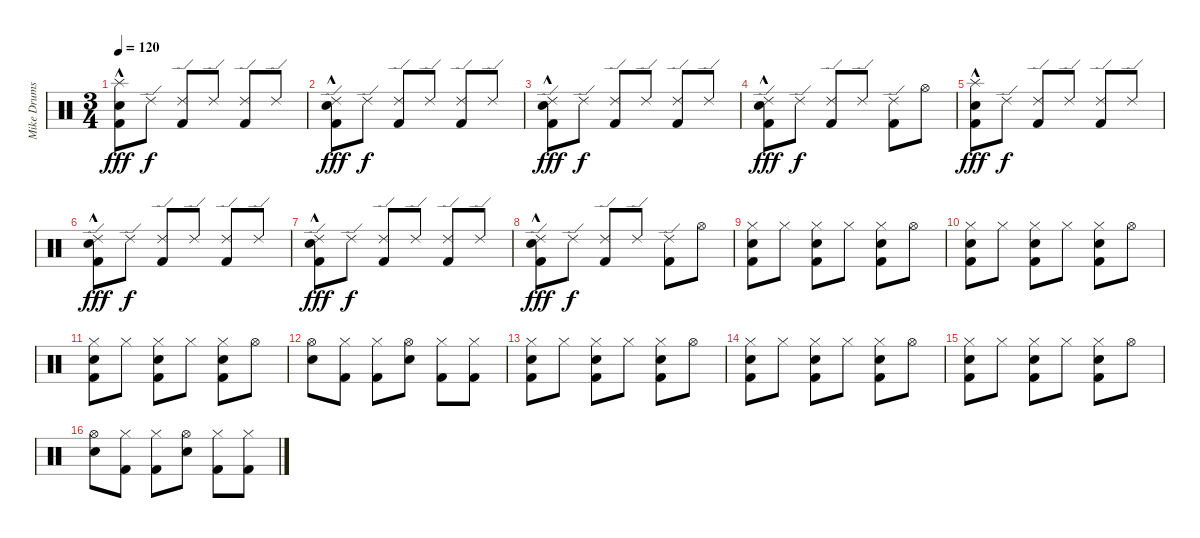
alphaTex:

\track ("Mike Drums" "Mike Drums") {instrument percussion}
\staff {score}
\articulation defaults
\ts (3 4)
\tempo 120
\clef neutral
\ks c
("Splash (hit)"{hac} "Snare (hit) 2"{hac} "Kick (hit) 2").8{dy fff} "Ride (edge) 2".8{dy f} ("Ride (edge) 2" "Kick (hit) 2").8 "Ride (edge) 2".8 ("Ride (edge) 2" "Kick (hit) 2").8 "Ride (edge) 2".8 |
("Ride (edge) 2" "Snare (hit) 2"{hac} "Kick (hit) 2").8{dy fff} "Ride (edge) 2".8{dy f} ("Ride (edge) 2" "Kick (hit) 2").8 "Ride (edge) 2".8 ("Ride (edge) 2" "Kick (hit) 2").8 "Ride (edge) 2".8 |
("Ride (edge) 2" "Snare (hit) 2"{hac} "Kick (hit) 2").8{dy fff} "Ride (edge) 2".8{dy f} ("Ride (edge) 2" "Kick (hit) 2").8 "Ride (edge) 2".8 ("Ride (edge) 2" "Kick (hit) 2").8 "Ride (edge) 2".8 |
("Ride (edge) 2" "Snare (hit) 2"{hac} "Kick (hit) 2").8{dy fff} "Ride (edge) 2".8{dy f} ("Ride (edge) 2" "Kick (hit) 2").8 "Ride (edge) 2".8 ("Ride (edge) 2" "Kick (hit) 2").8 "Hi-Hat (open)".8 |
("Splash (hit)"{hac} "Snare (hit) 2"{hac} "Kick (hit) 2").8{dy fff} "Ride (edge) 2".8{dy f} ("Ride (edge) 2" "Kick (hit) 2").8 "Ride (edge) 2".8 ("Ride (edge) 2" "Kick (hit) 2").8 "Ride (edge) 2".8 |
("Ride (edge) 2" "Snare (hit) 2"{hac} "Kick (hit) 2").8{dy fff} "Ride (edge) 2".8{dy f} ("Ride (edge) 2" "Kick (hit) 2").8 "Ride (edge) 2".8 ("Ride (edge) 2" "Kick (hit) 2").8 "Ride (edge) 2".8 |
("Ride (edge) 2" "Snare (hit) 2"{hac} "Kick (hit) 2").8{dy fff} "Ride (edge) 2".8{dy f} ("Ride (edge) 2" "Kick (hit) 2").8 "Ride (edge) 2".8 ("Ride (edge) 2" "Kick (hit) 2").8 "Ride (edge) 2".8 |
("Ride (edge) 2" "Snare (hit) 2"{hac} "Kick (hit) 2").8{dy fff} "Ride (edge) 2".8{dy f} ("Ride (edge) 2" "Kick (hit) 2").8 "Ride (edge) 2".8 ("Ride (edge) 2" "Kick (hit) 2").8 "Hi-Hat (open)".8 |
("Hi-Hat (closed)" "Snare (hit) 2" "Kick (hit) 2").8 "Hi-Hat (closed)".8 ("Hi-Hat (closed)" "Snare (hit) 2" "Kick (hit) 2").8 "Hi-Hat (closed)".8 ("Hi-Hat (closed)" "Snare (hit) 2" "Kick (hit) 2").8 "Hi-Hat (open)".8 |
("Hi-Hat (closed)" "Snare (hit) 2" "Kick (hit) 2").8 "Hi-Hat (closed)".8 ("Hi-Hat (closed)" "Snare (hit) 2" "Kick (hit) 2").8 "Hi-Hat (closed)".8 ("Hi-Hat (closed)" "Snare (hit) 2" "Kick (hit) 2").8 "Hi-Hat (open)".8 |
("Hi-Hat (closed)" "Snare (hit) 2" "Kick (hit) 2").8 "Hi-Hat (closed)".8 ("Hi-Hat (closed)" "Snare (hit) 2" "Kick (hit) 2").8 "Hi-Hat (closed)".8 ("Hi-Hat (closed)" "Snare (hit) 2" "Kick (hit) 2").8 "Hi-Hat (open)".8 |
("Hi-Hat (open)" "Electric Snare (hit)").8 ("Hi-Hat (closed)" "Kick (hit) 2").8 ("Hi-Hat (closed)" "Kick (hit) 2").8 ("Hi-Hat (open)" "Electric Snare (hit)").8 ("Hi-Hat (closed)" "Kick (hit) 2").8 ("Hi-Hat (closed)" "Kick (hit) 2").8 |
("Hi-Hat (closed)" "Snare (hit) 2" "Kick (hit) 2").8 "Hi-Hat (closed)".8 ("Hi-Hat (closed)" "Snare (hit) 2" "Kick (hit) 2").8 "Hi-Hat (closed)".8 ("Hi-Hat (closed)" "Snare (hit) 2" "Kick (hit) 2").8 "Hi-Hat (open)".8 |
("Hi-Hat (closed)" "Snare (hit) 2" "Kick (hit) 2").8 "Hi-Hat (closed)".8 ("Hi-Hat (closed)" "Snare (hit) 2" "Kick (hit) 2").8 "Hi-Hat (closed)".8 ("Hi-Hat (closed)" "Snare (hit) 2" "Kick (hit) 2").8 "Hi-Hat (open)".8 |
("Hi-Hat (closed)" "Snare (hit) 2" "Kick (hit) 2").8 "Hi-Hat (closed)".8 ("Hi-Hat (closed)" "Snare (hit) 2" "Kick (hit) 2").8 "Hi-Hat (closed)".8 ("Hi-Hat (closed)" "Snare (hit) 2" "Kick (hit) 2").8 "Hi-Hat (open)".8 |
("Hi-Hat (open)" "Electric Snare (hit)").8 ("Hi-Hat (closed)" "Kick (hit) 2").8 ("Hi-Hat (closed)" "Kick (hit) 2").8 ("Hi-Hat (open)" "Electric Snare (hit)").8 ("Hi-Hat (closed)" "Kick (hit) 2").8 ("Hi-Hat (closed)" "Kick (hit) 2").8
